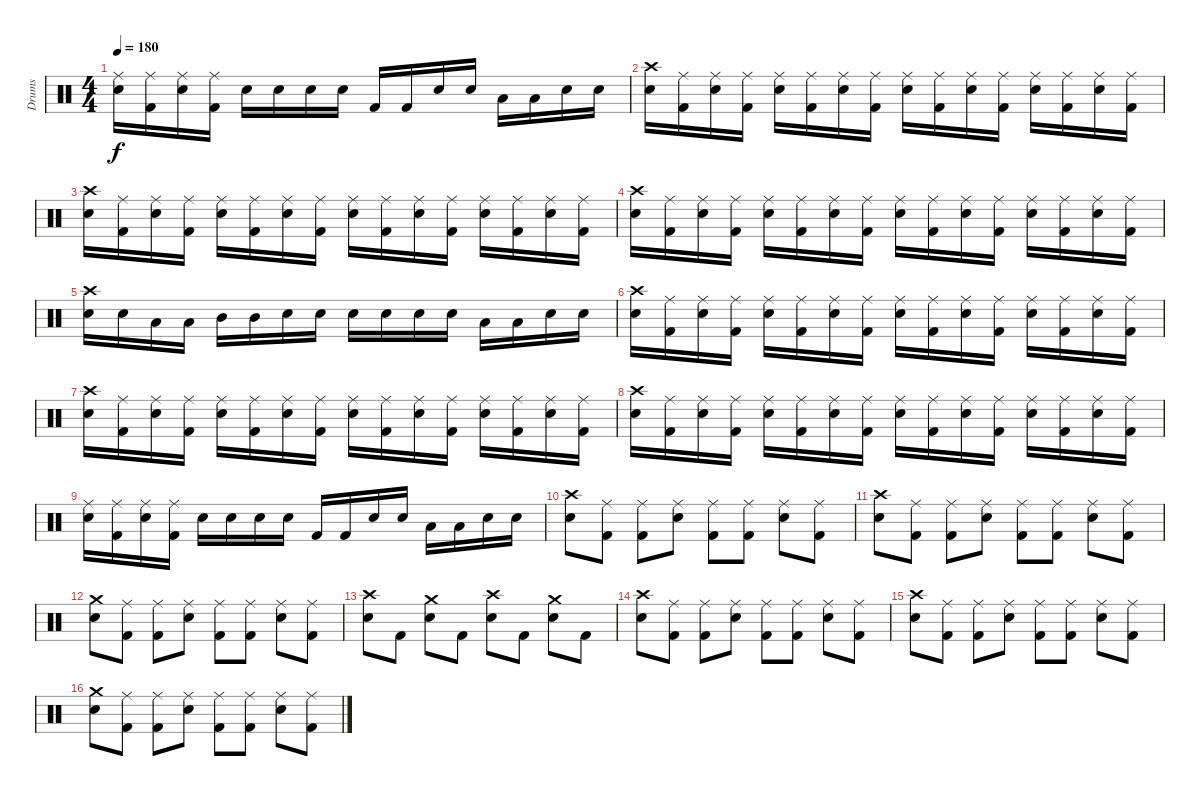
\track ("Drums" "Drums") {instrument percussion}
\staff {score}
\articulation defaults
\ts (4 4)
\tempo 180
\clef neutral
\ks c
("Snare (hit) 2" "Ride (middle)").16{dy f} ("Kick (hit) 2" "Ride (middle)").16 ("Snare (hit) 2" "Ride (middle)").16 ("Kick (hit) 2" "Ride (middle)").16 "Snare (hit) 2".16 "Snare (hit) 2".16 "Snare (hit) 2".16 "Snare (hit) 2".16 "Kick (hit) 2".16 "Kick (hit) 2".16 "Snare (hit) 2".16 "Snare (hit) 2".16 "Low Tom (hit)".16 "Low Tom (hit)".16 "Snare (hit) 2".16 "Snare (hit) 2".16 |
("Crash high (hit)" "Snare (hit) 2").16 ("Ride (middle)" "Kick (hit) 2").16 ("Ride (middle)" "Snare (hit) 2").16 ("Ride (middle)" "Kick (hit) 2").16 ("Ride (middle)" "Snare (hit) 2").16 ("Ride (middle)" "Kick (hit) 2").16 ("Ride (middle)" "Snare (hit) 2").16 ("Ride (middle)" "Kick (hit) 2").16 ("Ride (middle)" "Snare (hit) 2").16 ("Ride (middle)" "Kick (hit) 2").16 ("Ride (middle)" "Snare (hit) 2").16 ("Ride (middle)" "Kick (hit) 2").16 ("Ride (middle)" "Snare (hit) 2").16 ("Ride (middle)" "Kick (hit) 2").16 ("Ride (middle)" "Snare (hit) 2").16 ("Ride (middle)" "Kick (hit) 2").16 |
("Crash high (hit)" "Snare (hit) 2").16 ("Ride (middle)" "Kick (hit) 2").16 ("Ride (middle)" "Snare (hit) 2").16 ("Ride (middle)" "Kick (hit) 2").16 ("Ride (middle)" "Snare (hit) 2").16 ("Ride (middle)" "Kick (hit) 2").16 ("Ride (middle)" "Snare (hit) 2").16 ("Ride (middle)" "Kick (hit) 2").16 ("Ride (middle)" "Snare (hit) 2").16 ("Ride (middle)" "Kick (hit) 2").16 ("Ride (middle)" "Snare (hit) 2").16 ("Ride (middle)" "Kick (hit) 2").16 ("Ride (middle)" "Snare (hit) 2").16 ("Ride (middle)" "Kick (hit) 2").16 ("Ride (middle)" "Snare (hit) 2").16 ("Ride (middle)" "Kick (hit) 2").16 |
("Crash high (hit)" "Snare (hit) 2").16 ("Ride (middle)" "Kick (hit) 2").16 ("Ride (middle)" "Snare (hit) 2").16 ("Ride (middle)" "Kick (hit) 2").16 ("Ride (middle)" "Snare (hit) 2").16 ("Ride (middle)" "Kick (hit) 2").16 ("Ride (middle)" "Snare (hit) 2").16 ("Ride (middle)" "Kick (hit) 2").16 ("Ride (middle)" "Snare (hit) 2").16 ("Ride (middle)" "Kick (hit) 2").16 ("Ride (middle)" "Snare (hit) 2").16 ("Ride (middle)" "Kick (hit) 2").16 ("Ride (middle)" "Snare (hit) 2").16 ("Ride (middle)" "Kick (hit) 2").16 ("Ride (middle)" "Snare (hit) 2").16 ("Ride (middle)" "Kick (hit) 2").16 |
("Snare (hit) 2" "Crash high (hit)").16 "Snare (hit) 2".16 "Low Tom (hit)".16 "Low Tom (hit)".16 "Mid Tom (hit)".16 "Mid Tom (hit)".16 "Snare (hit) 2".16 "Snare (hit) 2".16 "Snare (hit) 2".16 "Snare (hit) 2".16 "Snare (hit) 2".16 "Snare (hit) 2".16 "Low Tom (hit)".16 "Low Tom (hit)".16 "Snare (hit) 2".16 "Snare (hit) 2".16 |
("Crash high (hit)" "Snare (hit) 2").16 ("Ride (middle)" "Kick (hit) 2").16 ("Ride (middle)" "Snare (hit) 2").16 ("Ride (middle)" "Kick (hit) 2").16 ("Ride (middle)" "Snare (hit) 2").16 ("Ride (middle)" "Kick (hit) 2").16 ("Ride (middle)" "Snare (hit) 2").16 ("Ride (middle)" "Kick (hit) 2").16 ("Ride (middle)" "Snare (hit) 2").16 ("Ride (middle)" "Kick (hit) 2").16 ("Ride (middle)" "Snare (hit) 2").16 ("Ride (middle)" "Kick (hit) 2").16 ("Ride (middle)" "Snare (hit) 2").16 ("Ride (middle)" "Kick (hit) 2").16 ("Ride (middle)" "Snare (hit) 2").16 ("Ride (middle)" "Kick (hit) 2").16 |
("Crash high (hit)" "Snare (hit) 2").16 ("Ride (middle)" "Kick (hit) 2").16 ("Ride (middle)" "Snare (hit) 2").16 ("Ride (middle)" "Kick (hit) 2").16 ("Ride (middle)" "Snare (hit) 2").16 ("Ride (middle)" "Kick (hit) 2").16 ("Ride (middle)" "Snare (hit) 2").16 ("Ride (middle)" "Kick (hit) 2").16 ("Ride (middle)" "Snare (hit) 2").16 ("Ride (middle)" "Kick (hit) 2").16 ("Ride (middle)" "Snare (hit) 2").16 ("Ride (middle)" "Kick (hit) 2").16 ("Ride (middle)" "Snare (hit) 2").16 ("Ride (middle)" "Kick (hit) 2").16 ("Ride (middle)" "Snare (hit) 2").16 ("Ride (middle)" "Kick (hit) 2").16 |
("Crash high (hit)" "Snare (hit) 2").16 ("Ride (middle)" "Kick (hit) 2").16 ("Ride (middle)" "Snare (hit) 2").16 ("Ride (middle)" "Kick (hit) 2").16 ("Ride (middle)" "Snare (hit) 2").16 ("Ride (middle)" "Kick (hit) 2").16 ("Ride (middle)" "Snare (hit) 2").16 ("Ride (middle)" "Kick (hit) 2").16 ("Ride (middle)" "Snare (hit) 2").16 ("Ride (middle)" "Kick (hit) 2").16 ("Ride (middle)" "Snare (hit) 2").16 ("Ride (middle)" "Kick (hit) 2").16 ("Ride (middle)" "Snare (hit) 2").16 ("Ride (middle)" "Kick (hit) 2").16 ("Ride (middle)" "Snare (hit) 2").16 ("Ride (middle)" "Kick (hit) 2").16 |
("Snare (hit) 2" "Ride (middle)").16 ("Kick (hit) 2" "Ride (middle)").16 ("Snare (hit) 2" "Ride (middle)").16 ("Kick (hit) 2" "Ride (middle)").16 "Snare (hit) 2".16 "Snare (hit) 2".16 "Snare (hit) 2".16 "Snare (hit) 2".16 "Kick (hit) 2".16 "Kick (hit) 2".16 "Snare (hit) 2".16 "Snare (hit) 2".16 "Low Tom (hit)".16 "Low Tom (hit)".16 "Snare (hit) 2".16 "Snare (hit) 2".16 |
("Crash high (hit)" "Snare (hit) 2").8 ("Ride (middle)" "Kick (hit) 2").8 ("Ride (middle)" "Kick (hit) 2").8 ("Ride (middle)" "Snare (hit) 2").8 ("Ride (middle)" "Kick (hit) 2").8 ("Ride (middle)" "Kick (hit) 2").8 ("Ride (middle)" "Snare (hit) 2").8 ("Ride (middle)" "Kick (hit) 2").8 |
("Crash high (hit)" "Snare (hit) 2").8 ("Ride (middle)" "Kick (hit) 2").8 ("Ride (middle)" "Kick (hit) 2").8 ("Ride (middle)" "Snare (hit) 2").8 ("Ride (middle)" "Kick (hit) 2").8 ("Ride (middle)" "Kick (hit) 2").8 ("Ride (middle)" "Snare (hit) 2").8 ("Ride (middle)" "Kick (hit) 2").8 |
("Crash medium (hit)" "Snare (hit) 2").8 ("Ride (middle)" "Kick (hit) 2").8 ("Ride (middle)" "Kick (hit) 2").8 ("Ride (middle)" "Snare (hit) 2").8 ("Ride (middle)" "Kick (hit) 2").8 ("Ride (middle)" "Kick (hit) 2").8 ("Ride (middle)" "Snare (hit) 2").8 ("Ride (middle)" "Kick (hit) 2").8 |
("Snare (hit) 2" "Crash high (hit)").8 "Kick (hit) 2".8 ("Snare (hit) 2" "Crash medium (hit)").8 "Kick (hit) 2".8 ("Crash high (hit)" "Snare (hit) 2").8 "Kick (hit) 2".8 ("Snare (hit) 2" "Crash medium (hit)").8 "Kick (hit) 2".8 |
("Crash high (hit)" "Snare (hit) 2").8 ("Ride (middle)" "Kick (hit) 2").8 ("Ride (middle)" "Kick (hit) 2").8 ("Ride (middle)" "Snare (hit) 2").8 ("Ride (middle)" "Kick (hit) 2").8 ("Ride (middle)" "Kick (hit) 2").8 ("Ride (middle)" "Snare (hit) 2").8 ("Ride (middle)" "Kick (hit) 2").8 |
("Crash high (hit)" "Snare (hit) 2").8 ("Ride (middle)" "Kick (hit) 2").8 ("Ride (middle)" "Kick (hit) 2").8 ("Ride (middle)" "Snare (hit) 2").8 ("Ride (middle)" "Kick (hit) 2").8 ("Ride (middle)" "Kick (hit) 2").8 ("Ride (middle)" "Snare (hit) 2").8 ("Ride (middle)" "Kick (hit) 2").8 |
("Crash medium (hit)" "Snare (hit) 2").8 ("Ride (middle)" "Kick (hit) 2").8 ("Ride (middle)" "Kick (hit) 2").8 ("Ride (middle)" "Snare (hit) 2").8 ("Ride (middle)" "Kick (hit) 2").8 ("Ride (middle)" "Kick (hit) 2").8 ("Ride (middle)" "Snare (hit) 2").8 ("Ride (middle)" "Kick (hit) 2").8
